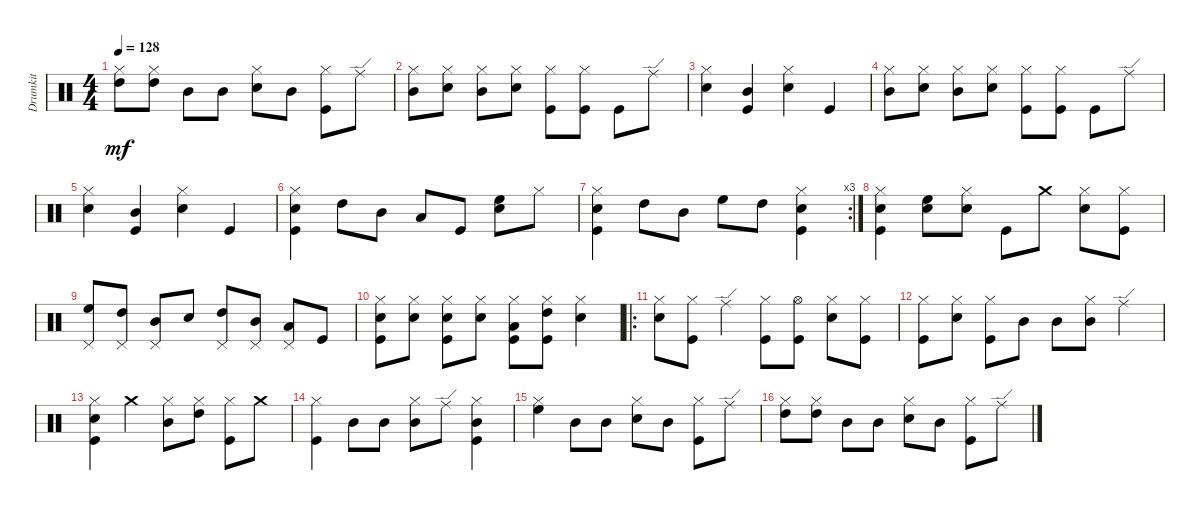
\track ("Drumkit" "Drumkit") {instrument percussion}
\staff {score}
\articulation defaults
\ts (4 4)
\tempo 128
\clef neutral
\ks c
("High Tom (hit)" "Hi-Hat (closed)").8{dy mf} ("High Tom (hit)" "Hi-Hat (closed)").8 "Mid Tom (hit)".8 "Mid Tom (hit)".8 ("Snare (hit) 2" "Hi-Hat (closed)").8 "Mid Tom (hit)".8 ("Kick (hit)" "Hi-Hat (closed)").8 "Ride (edge)".8 |
("Mid Tom (hit)" "Hi-Hat (closed)").8 ("Hi-Hat (closed)" "Snare (hit) 2").8 ("Hi-Hat (closed)" "Mid Tom (hit)").8 ("Hi-Hat (closed)" "Snare (hit) 2").8 ("Kick (hit)" "Hi-Hat (closed)").8 ("Kick (hit)" "Hi-Hat (closed)").8 "Kick (hit)".8 "Ride (edge)".8 |
("Hi-Hat (closed)" "Snare (hit) 2").4 ("Kick (hit)" "Mid Tom (hit)").4 ("Snare (hit) 2" "Hi-Hat (closed)").4 "Kick (hit)".4 |
("Mid Tom (hit)" "Hi-Hat (closed)").8 ("Hi-Hat (closed)" "Snare (hit) 2").8 ("Hi-Hat (closed)" "Mid Tom (hit)").8 ("Hi-Hat (closed)" "Snare (hit) 2").8 ("Kick (hit)" "Hi-Hat (closed)").8 ("Kick (hit)" "Hi-Hat (closed)").8 "Kick (hit)".8 "Ride (edge)".8 |
("Hi-Hat (closed)" "Snare (hit) 2").4 ("Kick (hit)" "Mid Tom (hit)").4 ("Snare (hit) 2" "Hi-Hat (closed)").4 "Kick (hit)".4 |
("Hi-Hat (closed)" "Snare (hit) 2" "Kick (hit)").4 "High Tom (hit)".8 "Mid Tom (hit)".8 "Low Tom (hit)".8 "Kick (hit)".8 ("Snare (hit) 2" "High Floor Tom (hit)").8 "Hi-Hat (closed)".8 |
\rc 3
("Hi-Hat (closed)" "Snare (hit) 2" "Kick (hit)").4 "High Tom (hit)".8 "Mid Tom (hit)".8 "High Floor Tom (hit)".8 "High Tom (hit)".8 ("Hi-Hat (closed)" "Snare (hit) 2" "Kick (hit)").4 |
("Hi-Hat (closed)" "Snare (hit) 2" "Kick (hit)").4 ("Snare (hit) 2" "High Floor Tom (hit)").8 ("Hi-Hat (closed)" "Snare (hit) 2").8 "Kick (hit)".8 "Crash medium (hit)".8 ("Hi-Hat (closed)" "Snare (hit) 2").8 ("Hi-Hat (closed)" "Kick (hit)").8 |
("High Floor Tom (hit)" "Pedal Hi-Hat (hit)").8 ("High Tom (hit)" "Pedal Hi-Hat (hit)").8 ("Mid Tom (hit)" "Pedal Hi-Hat (hit)").8 "Snare (hit) 2".8 ("High Tom (hit)" "Pedal Hi-Hat (hit)").8 ("Mid Tom (hit)" "Pedal Hi-Hat (hit)").8 ("Low Tom (hit)" "Pedal Hi-Hat (hit)").8 "Kick (hit)".8 |
("Hi-Hat (closed)" "Snare (hit) 2" "Kick (hit)").8 ("Hi-Hat (closed)" "Snare (hit) 2").8 ("Snare (hit) 2" "Hi-Hat (closed)" "Kick (hit)").8 ("Snare (hit) 2" "Hi-Hat (closed)").8 ("Kick (hit)" "Hi-Hat (closed)" "Low Tom (hit)").8 ("Hi-Hat (closed)" "Kick (hit)" "High Tom (hit)").8 ("Snare (hit) 2" "Hi-Hat (closed)").4 |
\ro
("Snare (hit) 2" "Hi-Hat (closed)").8 ("Kick (hit)" "Hi-Hat (closed)").8 "Ride (edge)".4 ("Kick (hit)" "Hi-Hat (closed)").8 ("Kick (hit)" "Hi-Hat (open)").8 ("Snare (hit) 2" "Hi-Hat (closed)").8 ("Kick (hit)" "Hi-Hat (closed)").8 |
("Kick (hit)" "Hi-Hat (closed)").8 ("Snare (hit) 2" "Hi-Hat (closed)").8 ("Kick (hit)" "Hi-Hat (closed)").8 "Mid Tom (hit)".8 "Mid Tom (hit)".8 ("Mid Tom (hit)" "Hi-Hat (closed)").8 "Ride (edge)".4 |
("Snare (hit) 2" "Hi-Hat (closed)" "Kick (hit)").4 "Crash medium (hit)".4 ("Mid Tom (hit)" "Hi-Hat (closed)").8 ("High Tom (hit)" "Hi-Hat (closed)").8 ("Kick (hit)" "Hi-Hat (closed)").8 "Crash medium (hit)".8 |
("Kick (hit)" "Hi-Hat (closed)").4 "Mid Tom (hit)".8 "Mid Tom (hit)".8 ("Mid Tom (hit)" "Hi-Hat (closed)").8 "Ride (edge)".8 ("Hi-Hat (closed)" "Kick (hit)" "Mid Tom (hit)").4 |
("High Floor Tom (hit)" "Hi-Hat (closed)").4 "Mid Tom (hit)".8 "Mid Tom (hit)".8 ("Snare (hit) 2" "Hi-Hat (closed)").8 "Mid Tom (hit)".8 ("Kick (hit)" "Hi-Hat (closed)").8 "Ride (edge)".8 |
("High Tom (hit)" "Hi-Hat (closed)").8 ("High Tom (hit)" "Hi-Hat (closed)").8 "Mid Tom (hit)".8 "Mid Tom (hit)".8 ("Snare (hit) 2" "Hi-Hat (closed)").8 "Mid Tom (hit)".8 ("Kick (hit)" "Hi-Hat (closed)").8 "Ride (edge)".8
